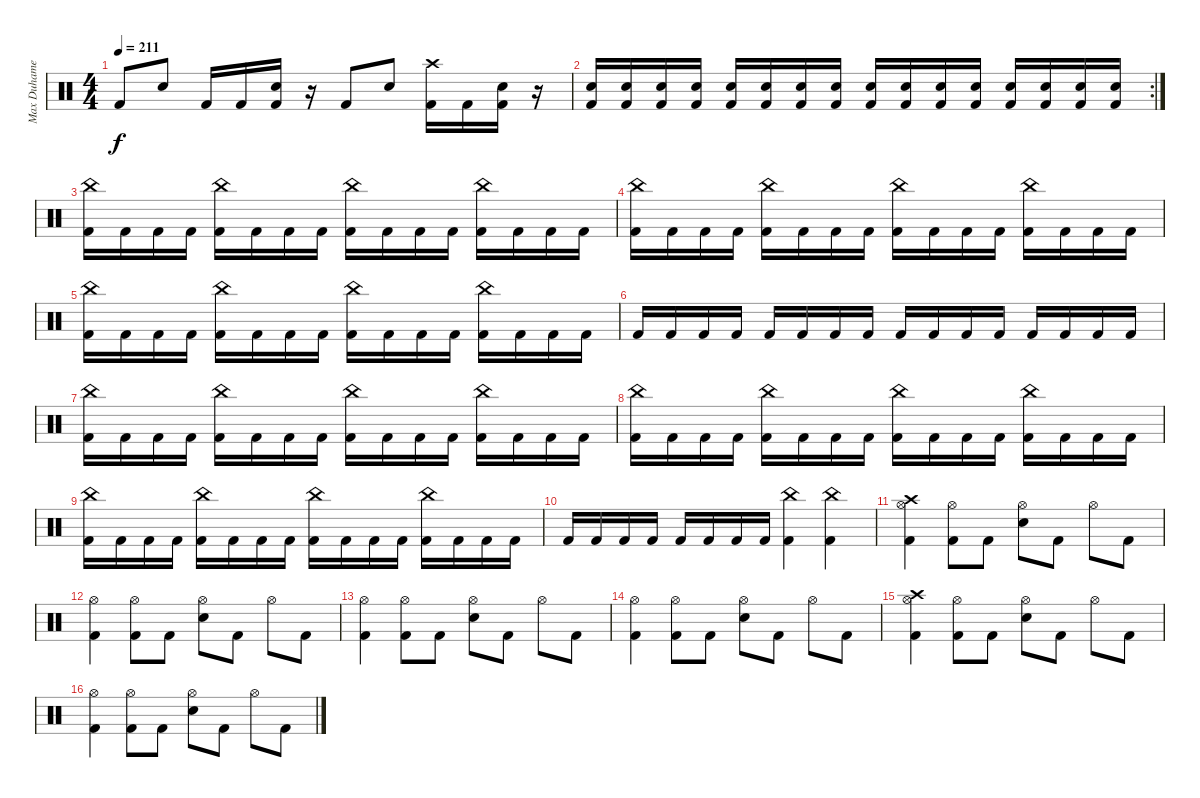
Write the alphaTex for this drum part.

\track ("Max Duhamel" "Max Duhame") {instrument percussion}
\staff {score}
\articulation defaults
\ts (4 4)
\tempo 211
\clef neutral
\ks c "Kick (hit) 2".8{dy f} "Electric Snare (hit)".8 "Kick (hit) 2".16 "Kick (hit) 2".16
("Electric Snare (hit)" "Kick (hit) 2").16 r.16 "Kick (hit) 2".8 "Electric Snare (hit)".8 ("Crash high (hit)" "Kick (hit) 2").16 "Kick (hit) 2".16 ("Electric Snare (hit)" "Kick (hit) 2").16 r.16 |
\rc 2
("Electric Snare (hit)" "Kick (hit) 2").16 ("Electric Snare (hit)" "Kick (hit) 2").16 ("Electric Snare (hit)" "Kick (hit) 2").16 ("Electric Snare (hit)" "Kick (hit) 2").16 ("Electric Snare (hit)" "Kick (hit) 2").16 ("Electric Snare (hit)" "Kick (hit) 2").16 ("Electric Snare (hit)" "Kick (hit) 2").16 ("Electric Snare (hit)" "Kick (hit) 2").16 ("Electric Snare (hit)" "Kick (hit) 2").16 ("Electric Snare (hit)" "Kick (hit) 2").16 ("Electric Snare (hit)" "Kick (hit) 2").16 ("Electric Snare (hit)" "Kick (hit) 2").16 ("Electric Snare (hit)" "Kick (hit) 2").16 ("Electric Snare (hit)" "Kick (hit) 2").16 ("Electric Snare (hit)" "Kick (hit) 2").16 ("Electric Snare (hit)" "Kick (hit) 2").16 |
("China (hit)" "Kick (hit) 2").16 "Kick (hit) 2".16 "Kick (hit) 2".16 "Kick (hit) 2".16 ("China (hit)" "Kick (hit) 2").16 "Kick (hit) 2".16 "Kick (hit) 2".16 "Kick (hit) 2".16 ("China (hit)" "Kick (hit) 2").16 "Kick (hit) 2".16 "Kick (hit) 2".16 "Kick (hit) 2".16 ("China (hit)" "Kick (hit) 2").16 "Kick (hit) 2".16 "Kick (hit) 2".16 "Kick (hit) 2".16 |
("China (hit)" "Kick (hit) 2").16 "Kick (hit) 2".16 "Kick (hit) 2".16 "Kick (hit) 2".16 ("China (hit)" "Kick (hit) 2").16 "Kick (hit) 2".16 "Kick (hit) 2".16 "Kick (hit) 2".16 ("China (hit)" "Kick (hit) 2").16 "Kick (hit) 2".16 "Kick (hit) 2".16 "Kick (hit) 2".16 ("China (hit)" "Kick (hit) 2").16 "Kick (hit) 2".16 "Kick (hit) 2".16 "Kick (hit) 2".16 |
("China (hit)" "Kick (hit) 2").16 "Kick (hit) 2".16 "Kick (hit) 2".16 "Kick (hit) 2".16 ("China (hit)" "Kick (hit) 2").16 "Kick (hit) 2".16 "Kick (hit) 2".16 "Kick (hit) 2".16 ("China (hit)" "Kick (hit) 2").16 "Kick (hit) 2".16 "Kick (hit) 2".16 "Kick (hit) 2".16 ("China (hit)" "Kick (hit) 2").16 "Kick (hit) 2".16 "Kick (hit) 2".16 "Kick (hit) 2".16 |
"Kick (hit) 2".16 "Kick (hit) 2".16 "Kick (hit) 2".16 "Kick (hit) 2".16 "Kick (hit) 2".16 "Kick (hit) 2".16 "Kick (hit) 2".16 "Kick (hit) 2".16 "Kick (hit) 2".16 "Kick (hit) 2".16 "Kick (hit) 2".16 "Kick (hit) 2".16 "Kick (hit) 2".16 "Kick (hit) 2".16 "Kick (hit) 2".16 "Kick (hit) 2".16 |
("China (hit)" "Kick (hit) 2").16 "Kick (hit) 2".16 "Kick (hit) 2".16 "Kick (hit) 2".16 ("China (hit)" "Kick (hit) 2").16 "Kick (hit) 2".16 "Kick (hit) 2".16 "Kick (hit) 2".16 ("China (hit)" "Kick (hit) 2").16 "Kick (hit) 2".16 "Kick (hit) 2".16 "Kick (hit) 2".16 ("China (hit)" "Kick (hit) 2").16 "Kick (hit) 2".16 "Kick (hit) 2".16 "Kick (hit) 2".16 |
("China (hit)" "Kick (hit) 2").16 "Kick (hit) 2".16 "Kick (hit) 2".16 "Kick (hit) 2".16 ("China (hit)" "Kick (hit) 2").16 "Kick (hit) 2".16 "Kick (hit) 2".16 "Kick (hit) 2".16 ("China (hit)" "Kick (hit) 2").16 "Kick (hit) 2".16 "Kick (hit) 2".16 "Kick (hit) 2".16 ("China (hit)" "Kick (hit) 2").16 "Kick (hit) 2".16 "Kick (hit) 2".16 "Kick (hit) 2".16 |
("China (hit)" "Kick (hit) 2").16 "Kick (hit) 2".16 "Kick (hit) 2".16 "Kick (hit) 2".16 ("China (hit)" "Kick (hit) 2").16 "Kick (hit) 2".16 "Kick (hit) 2".16 "Kick (hit) 2".16 ("China (hit)" "Kick (hit) 2").16 "Kick (hit) 2".16 "Kick (hit) 2".16 "Kick (hit) 2".16 ("China (hit)" "Kick (hit) 2").16 "Kick (hit) 2".16 "Kick (hit) 2".16 "Kick (hit) 2".16 |
"Kick (hit) 2".16 "Kick (hit) 2".16 "Kick (hit) 2".16 "Kick (hit) 2".16 "Kick (hit) 2".16 "Kick (hit) 2".16 "Kick (hit) 2".16 "Kick (hit) 2".16 ("China (hit)" "Kick (hit) 2").4 ("China (hit)" "Kick (hit) 2").4 |
("Crash high (hit)" "Hi-Hat (open)" "Kick (hit) 2").4 ("Hi-Hat (open)" "Kick (hit) 2").8 "Kick (hit) 2".8 ("Hi-Hat (open)" "Electric Snare (hit)").8 "Kick (hit) 2".8 "Hi-Hat (open)".8 "Kick (hit) 2".8 |
("Hi-Hat (open)" "Kick (hit) 2").4 ("Hi-Hat (open)" "Kick (hit) 2").8 "Kick (hit) 2".8 ("Hi-Hat (open)" "Electric Snare (hit)").8 "Kick (hit) 2".8 "Hi-Hat (open)".8 "Kick (hit) 2".8 |
("Hi-Hat (open)" "Kick (hit) 2").4 ("Hi-Hat (open)" "Kick (hit) 2").8 "Kick (hit) 2".8 ("Hi-Hat (open)" "Electric Snare (hit)").8 "Kick (hit) 2".8 "Hi-Hat (open)".8 "Kick (hit) 2".8 |
("Hi-Hat (open)" "Kick (hit) 2").4 ("Hi-Hat (open)" "Kick (hit) 2").8 "Kick (hit) 2".8 ("Hi-Hat (open)" "Electric Snare (hit)").8 "Kick (hit) 2".8 "Hi-Hat (open)".8 "Kick (hit) 2".8 |
("Crash high (hit)" "Hi-Hat (open)" "Kick (hit) 2").4 ("Hi-Hat (open)" "Kick (hit) 2").8 "Kick (hit) 2".8 ("Hi-Hat (open)" "Electric Snare (hit)").8 "Kick (hit) 2".8 "Hi-Hat (open)".8 "Kick (hit) 2".8 |
("Hi-Hat (open)" "Kick (hit) 2").4 ("Hi-Hat (open)" "Kick (hit) 2").8 "Kick (hit) 2".8 ("Hi-Hat (open)" "Electric Snare (hit)").8 "Kick (hit) 2".8 "Hi-Hat (open)".8 "Kick (hit) 2".8
